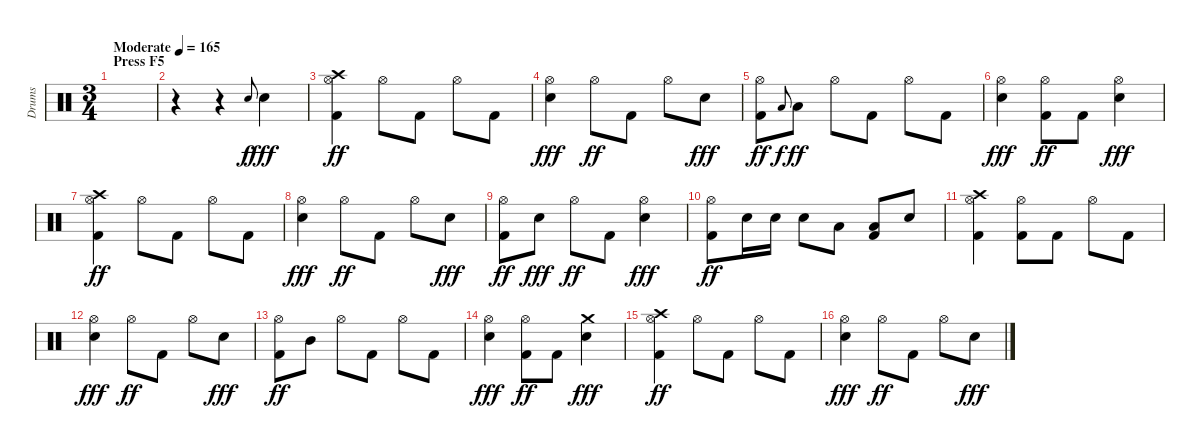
\track ("Drums" "Drums") {instrument percussion}
\staff {score}
\articulation defaults
\ts (3 4)
\section ("" "Press F5")
\tempo (165 "Moderate")
\clef neutral
\ks c
|
r.4 r.4 "Snare (hit) 2".8{gr onbeat} "Snare (hit) 2".4{dy fff} |
("Crash high (hit)" "Hi-Hat (open)" "Kick (hit) 2").4{dy ff} "Hi-Hat (open)".8 "Kick (hit) 2".8 "Hi-Hat (open)".8 "Kick (hit) 2".8 |
("Hi-Hat (open)" "Snare (hit) 2").4{dy fff} "Hi-Hat (open)".8{dy ff} "Kick (hit) 2".8 "Hi-Hat (open)".8 "Snare (hit) 2".8{dy fff} |
("Hi-Hat (open)" "Kick (hit) 2").8{dy ff} "Low Tom (hit)".8{gr onbeat dy f} "Low Tom (hit)".8{dy ff} "Hi-Hat (open)".8 "Kick (hit) 2".8 "Hi-Hat (open)".8 "Kick (hit) 2".8 |
("Hi-Hat (open)" "Snare (hit) 2").4{dy fff} ("Hi-Hat (open)" "Kick (hit) 2").8{dy ff} "Kick (hit) 2".8 ("Hi-Hat (open)" "Snare (hit) 2").4{dy fff} |
("Crash high (hit)" "Hi-Hat (open)" "Kick (hit) 2").4{dy ff} "Hi-Hat (open)".8 "Kick (hit) 2".8 "Hi-Hat (open)".8 "Kick (hit) 2".8 |
("Hi-Hat (open)" "Snare (hit) 2").4{dy fff} "Hi-Hat (open)".8{dy ff} "Kick (hit) 2".8 "Hi-Hat (open)".8 "Snare (hit) 2".8{dy fff} |
("Hi-Hat (open)" "Kick (hit) 2").8{dy ff} "Snare (hit) 2".8{dy fff} "Hi-Hat (open)".8{dy ff} "Kick (hit) 2".8 ("Hi-Hat (open)" "Snare (hit) 2").4{dy fff} |
("Hi-Hat (open)" "Kick (hit) 2").8{dy ff} "Snare (hit) 2".16 "Snare (hit) 2".16 "Snare (hit) 2".8 "Low Tom (hit)".8 ("Low Tom (hit)" "Kick (hit) 2").8 "Snare (hit) 2".8 |
("Crash high (hit)" "Hi-Hat (open)" "Kick (hit) 2").4 ("Hi-Hat (open)" "Kick (hit) 2").8 "Kick (hit) 2".8 "Hi-Hat (open)".8 "Kick (hit) 2".8 |
("Hi-Hat (open)" "Snare (hit) 2").4{dy fff} "Hi-Hat (open)".8{dy ff} "Kick (hit) 2".8 "Hi-Hat (open)".8 "Snare (hit) 2".8{dy fff} |
("Hi-Hat (open)" "Kick (hit) 2").8{dy ff} "Mid Tom (hit)".8 "Hi-Hat (open)".8 "Kick (hit) 2".8 "Hi-Hat (open)".8 "Kick (hit) 2".8 |
("Hi-Hat (open)" "Snare (hit) 2").4{dy fff} ("Hi-Hat (open)" "Kick (hit) 2").8{dy ff} "Kick (hit) 2".8 ("Crash medium (hit)" "Snare (hit) 2").4{dy fff} |
("Crash high (hit)" "Hi-Hat (open)" "Kick (hit) 2").4{dy ff} "Hi-Hat (open)".8 "Kick (hit) 2".8 "Hi-Hat (open)".8 "Kick (hit) 2".8 |
("Hi-Hat (open)" "Snare (hit) 2").4{dy fff} "Hi-Hat (open)".8{dy ff} "Kick (hit) 2".8 "Hi-Hat (open)".8 "Snare (hit) 2".8{dy fff}
